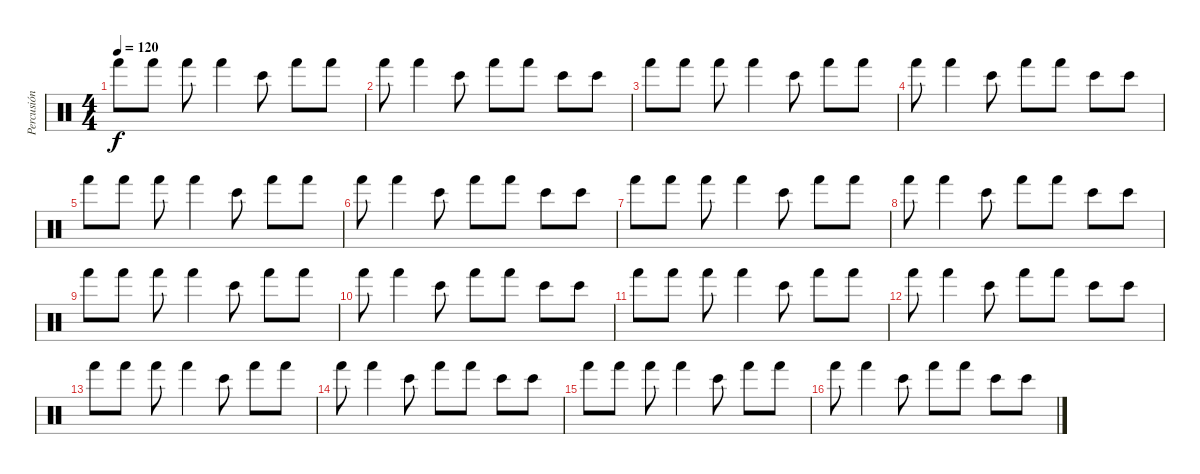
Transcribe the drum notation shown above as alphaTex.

\track ("Percusión" "Percusión") {instrument percussion}
\staff
\articulation defaults
\ts (4 4)
\tempo 120
\clef neutral
\ks c "Hand (hit)".8{dy f} "Hand (hit)".8 "Hand (hit)".8 "Hand (hit)".4 "Bongo High (hit)".8 "Hand (hit)".8 "Hand (hit)".8
|
"Hand (hit)".8 "Hand (hit)".4 "Bongo High (hit)".8 "Hand (hit)".8 "Hand (hit)".8 "Bongo High (hit)".8 "Bongo High (hit)".8 |
"Hand (hit)".8 "Hand (hit)".8 "Hand (hit)".8 "Hand (hit)".4 "Bongo High (hit)".8 "Hand (hit)".8 "Hand (hit)".8 |
"Hand (hit)".8 "Hand (hit)".4 "Bongo High (hit)".8 "Hand (hit)".8 "Hand (hit)".8 "Bongo High (hit)".8 "Bongo High (hit)".8 |
"Hand (hit)".8 "Hand (hit)".8 "Hand (hit)".8 "Hand (hit)".4 "Bongo High (hit)".8 "Hand (hit)".8 "Hand (hit)".8 |
"Hand (hit)".8 "Hand (hit)".4 "Bongo High (hit)".8 "Hand (hit)".8 "Hand (hit)".8 "Bongo High (hit)".8 "Bongo High (hit)".8 |
"Hand (hit)".8 "Hand (hit)".8 "Hand (hit)".8 "Hand (hit)".4 "Bongo High (hit)".8 "Hand (hit)".8 "Hand (hit)".8 |
"Hand (hit)".8 "Hand (hit)".4 "Bongo High (hit)".8 "Hand (hit)".8 "Hand (hit)".8 "Bongo High (hit)".8 "Bongo High (hit)".8 |
"Hand (hit)".8 "Hand (hit)".8 "Hand (hit)".8 "Hand (hit)".4 "Bongo High (hit)".8 "Hand (hit)".8 "Hand (hit)".8 |
"Hand (hit)".8 "Hand (hit)".4 "Bongo High (hit)".8 "Hand (hit)".8 "Hand (hit)".8 "Bongo High (hit)".8 "Bongo High (hit)".8 |
"Hand (hit)".8 "Hand (hit)".8 "Hand (hit)".8 "Hand (hit)".4 "Bongo High (hit)".8 "Hand (hit)".8 "Hand (hit)".8 |
"Hand (hit)".8 "Hand (hit)".4 "Bongo High (hit)".8 "Hand (hit)".8 "Hand (hit)".8 "Bongo High (hit)".8 "Bongo High (hit)".8 |
"Hand (hit)".8 "Hand (hit)".8 "Hand (hit)".8 "Hand (hit)".4 "Bongo High (hit)".8 "Hand (hit)".8 "Hand (hit)".8 |
"Hand (hit)".8 "Hand (hit)".4 "Bongo High (hit)".8 "Hand (hit)".8 "Hand (hit)".8 "Bongo High (hit)".8 "Bongo High (hit)".8 |
"Hand (hit)".8 "Hand (hit)".8 "Hand (hit)".8 "Hand (hit)".4 "Bongo High (hit)".8 "Hand (hit)".8 "Hand (hit)".8 |
"Hand (hit)".8 "Hand (hit)".4 "Bongo High (hit)".8 "Hand (hit)".8 "Hand (hit)".8 "Bongo High (hit)".8 "Bongo High (hit)".8
